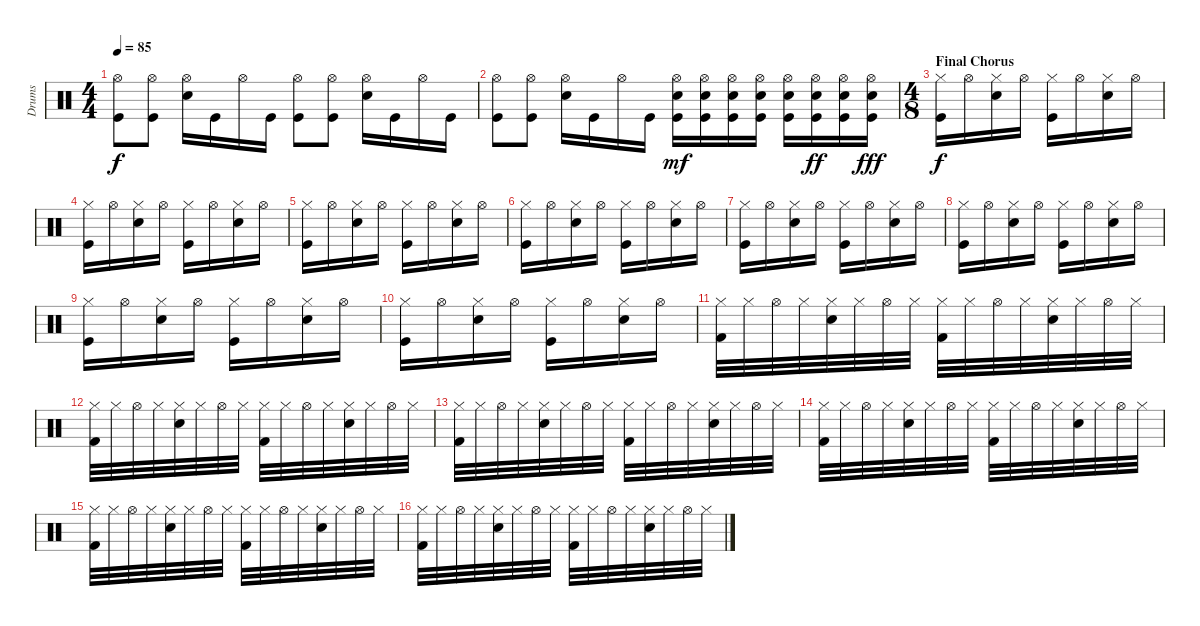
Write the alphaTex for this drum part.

\track ("Drums" "Drums") {instrument percussion}
\staff {score}
\articulation defaults
\ts (4 4)
\tempo 85
\clef neutral
\ks c
("Hi-Hat (open)" "Kick (hit)").8{dy f} ("Hi-Hat (open)" "Kick (hit)").8 ("Hi-Hat (open)" "Snare (hit) 2").16 "Kick (hit)".16 "Hi-Hat (open)".16 "Kick (hit)".16 ("Hi-Hat (open)" "Kick (hit)").8 ("Hi-Hat (open)" "Kick (hit)").8 ("Hi-Hat (open)" "Snare (hit) 2").16 "Kick (hit)".16 "Hi-Hat (open)".16 "Kick (hit)".16 |
("Hi-Hat (open)" "Kick (hit)").8 ("Hi-Hat (open)" "Kick (hit)").8 ("Hi-Hat (open)" "Snare (hit) 2").16 "Kick (hit)".16 "Hi-Hat (open)".16 "Kick (hit)".16 ("Hi-Hat (open)" "Snare (hit) 2" "Kick (hit)").16{dy mf} ("Hi-Hat (open)" "Snare (hit) 2" "Kick (hit)").16 ("Hi-Hat (open)" "Snare (hit) 2" "Kick (hit)").16 ("Hi-Hat (open)" "Snare (hit) 2" "Kick (hit)").16 ("Hi-Hat (open)" "Snare (hit) 2" "Kick (hit)").16 ("Hi-Hat (open)" "Snare (hit) 2" "Kick (hit)").16{dy ff} ("Hi-Hat (open)" "Snare (hit) 2" "Kick (hit)").16 ("Hi-Hat (open)" "Snare (hit) 2" "Kick (hit)").16{dy fff} |
\ts (4 8)
\section ("" "Final Chorus")
("Hi-Hat (closed)" "Kick (hit)").16{dy f} "Hi-Hat (open)".16 ("Hi-Hat (closed)" "Snare (hit) 2").16 "Hi-Hat (open)".16 ("Hi-Hat (closed)" "Kick (hit)").16 "Hi-Hat (open)".16 ("Hi-Hat (closed)" "Snare (hit) 2").16 "Hi-Hat (open)".16 |
("Hi-Hat (closed)" "Kick (hit)").16 "Hi-Hat (open)".16 ("Hi-Hat (closed)" "Snare (hit) 2").16 "Hi-Hat (open)".16 ("Hi-Hat (closed)" "Kick (hit)").16 "Hi-Hat (open)".16 ("Hi-Hat (closed)" "Snare (hit) 2").16 "Hi-Hat (open)".16 |
("Hi-Hat (closed)" "Kick (hit)").16 "Hi-Hat (open)".16 ("Hi-Hat (closed)" "Snare (hit) 2").16 "Hi-Hat (open)".16 ("Hi-Hat (closed)" "Kick (hit)").16 "Hi-Hat (open)".16 ("Hi-Hat (closed)" "Snare (hit) 2").16 "Hi-Hat (open)".16 |
("Hi-Hat (closed)" "Kick (hit)").16 "Hi-Hat (open)".16 ("Hi-Hat (closed)" "Snare (hit) 2").16 "Hi-Hat (open)".16 ("Hi-Hat (closed)" "Kick (hit)").16 "Hi-Hat (open)".16 ("Hi-Hat (closed)" "Snare (hit) 2").16 "Hi-Hat (open)".16 |
("Hi-Hat (closed)" "Kick (hit)").16 "Hi-Hat (open)".16 ("Hi-Hat (closed)" "Snare (hit) 2").16 "Hi-Hat (open)".16 ("Hi-Hat (closed)" "Kick (hit)").16 "Hi-Hat (open)".16 ("Hi-Hat (closed)" "Snare (hit) 2").16 "Hi-Hat (open)".16 |
("Hi-Hat (closed)" "Kick (hit)").16 "Hi-Hat (open)".16 ("Hi-Hat (closed)" "Snare (hit) 2").16 "Hi-Hat (open)".16 ("Hi-Hat (closed)" "Kick (hit)").16 "Hi-Hat (open)".16 ("Hi-Hat (closed)" "Snare (hit) 2").16 "Hi-Hat (open)".16 |
("Hi-Hat (closed)" "Kick (hit)").16 "Hi-Hat (open)".16 ("Hi-Hat (closed)" "Snare (hit) 2").16 "Hi-Hat (open)".16 ("Hi-Hat (closed)" "Kick (hit)").16 "Hi-Hat (open)".16 ("Hi-Hat (closed)" "Snare (hit) 2").16 "Hi-Hat (open)".16 |
("Hi-Hat (closed)" "Kick (hit)").16 "Hi-Hat (open)".16 ("Hi-Hat (closed)" "Snare (hit) 2").16 "Hi-Hat (open)".16 ("Hi-Hat (closed)" "Kick (hit)").16 "Hi-Hat (open)".16 ("Hi-Hat (closed)" "Snare (hit) 2").16 "Hi-Hat (open)".16 |
("Hi-Hat (closed)" "Kick (hit) 2").32 "Hi-Hat (closed)".32 "Hi-Hat (open)".32 "Hi-Hat (closed)".32 ("Hi-Hat (closed)" "Snare (hit) 2").32 "Hi-Hat (closed)".32 "Hi-Hat (open)".32 "Hi-Hat (closed)".32 ("Hi-Hat (closed)" "Kick (hit) 2").32 "Hi-Hat (closed)".32 "Hi-Hat (open)".32 "Hi-Hat (closed)".32 ("Hi-Hat (closed)" "Snare (hit) 2").32 "Hi-Hat (closed)".32 "Hi-Hat (open)".32 "Hi-Hat (closed)".32 |
("Hi-Hat (closed)" "Kick (hit) 2").32 "Hi-Hat (closed)".32 "Hi-Hat (open)".32 "Hi-Hat (closed)".32 ("Hi-Hat (closed)" "Snare (hit) 2").32 "Hi-Hat (closed)".32 "Hi-Hat (open)".32 "Hi-Hat (closed)".32 ("Hi-Hat (closed)" "Kick (hit) 2").32 "Hi-Hat (closed)".32 "Hi-Hat (open)".32 "Hi-Hat (closed)".32 ("Hi-Hat (closed)" "Snare (hit) 2").32 "Hi-Hat (closed)".32 "Hi-Hat (open)".32 "Hi-Hat (closed)".32 |
("Hi-Hat (closed)" "Kick (hit) 2").32 "Hi-Hat (closed)".32 "Hi-Hat (open)".32 "Hi-Hat (closed)".32 ("Hi-Hat (closed)" "Snare (hit) 2").32 "Hi-Hat (closed)".32 "Hi-Hat (open)".32 "Hi-Hat (closed)".32 ("Hi-Hat (closed)" "Kick (hit) 2").32 "Hi-Hat (closed)".32 "Hi-Hat (open)".32 "Hi-Hat (closed)".32 ("Hi-Hat (closed)" "Snare (hit) 2").32 "Hi-Hat (closed)".32 "Hi-Hat (open)".32 "Hi-Hat (closed)".32 |
("Hi-Hat (closed)" "Kick (hit) 2").32 "Hi-Hat (closed)".32 "Hi-Hat (open)".32 "Hi-Hat (closed)".32 ("Hi-Hat (closed)" "Snare (hit) 2").32 "Hi-Hat (closed)".32 "Hi-Hat (open)".32 "Hi-Hat (closed)".32 ("Hi-Hat (closed)" "Kick (hit) 2").32 "Hi-Hat (closed)".32 "Hi-Hat (open)".32 "Hi-Hat (closed)".32 ("Hi-Hat (closed)" "Snare (hit) 2").32 "Hi-Hat (closed)".32 "Hi-Hat (open)".32 "Hi-Hat (closed)".32 |
("Hi-Hat (closed)" "Kick (hit) 2").32 "Hi-Hat (closed)".32 "Hi-Hat (open)".32 "Hi-Hat (closed)".32 ("Hi-Hat (closed)" "Snare (hit) 2").32 "Hi-Hat (closed)".32 "Hi-Hat (open)".32 "Hi-Hat (closed)".32 ("Hi-Hat (closed)" "Kick (hit) 2").32 "Hi-Hat (closed)".32 "Hi-Hat (open)".32 "Hi-Hat (closed)".32 ("Hi-Hat (closed)" "Snare (hit) 2").32 "Hi-Hat (closed)".32 "Hi-Hat (open)".32 "Hi-Hat (closed)".32 |
("Hi-Hat (closed)" "Kick (hit) 2").32 "Hi-Hat (closed)".32 "Hi-Hat (open)".32 "Hi-Hat (closed)".32 ("Hi-Hat (closed)" "Snare (hit) 2").32 "Hi-Hat (closed)".32 "Hi-Hat (open)".32 "Hi-Hat (closed)".32 ("Hi-Hat (closed)" "Kick (hit) 2").32 "Hi-Hat (closed)".32 "Hi-Hat (open)".32 "Hi-Hat (closed)".32 ("Hi-Hat (closed)" "Snare (hit) 2").32 "Hi-Hat (closed)".32 "Hi-Hat (open)".32 "Hi-Hat (closed)".32
